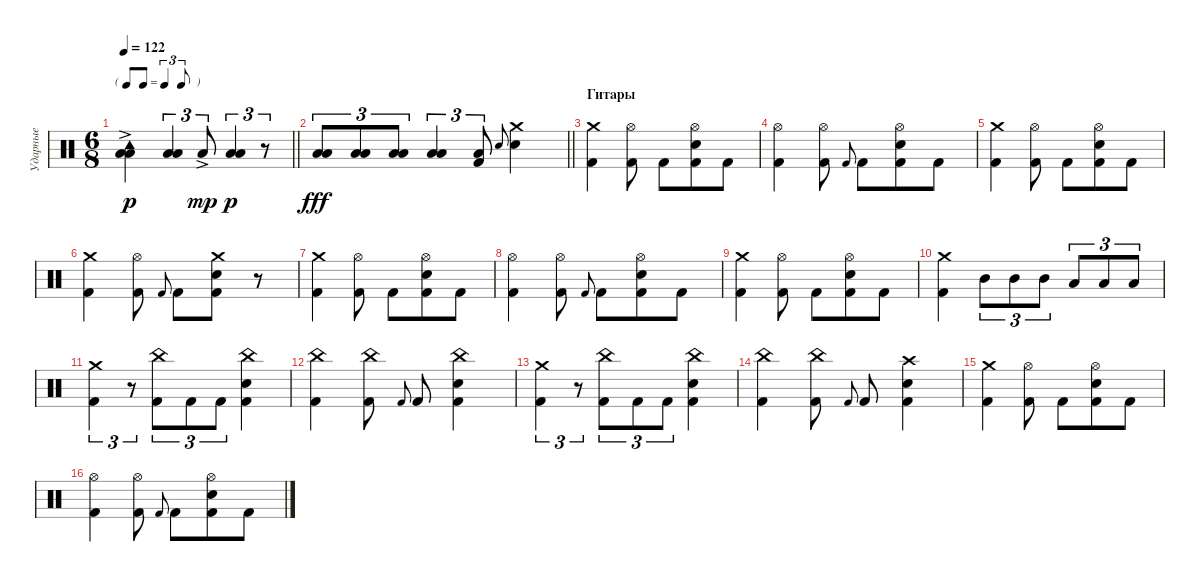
\track ("Ударные" "Ударные") {instrument percussion}
\staff {score}
\articulation defaults
\ts (6 8)
\tf triplet8th
\tempo 122
\clef neutral
\barLineRight lightlight
\ks c
("Low Floor Tom (hit)"{ac} "Low Tom (hit)" "Tambourine (hit)").4{dy p} ("Low Floor Tom (hit)" "Low Tom (hit)").4{tu (3 2)} "Low Tom (hit)"{ac}.8{tu (3 2) dy mp} ("Low Floor Tom (hit)" "Low Tom (hit)").4{tu (3 2) dy p} r.8{tu (3 2)} |
\barLineRight lightlight
("Low Floor Tom (hit)" "Low Tom (hit)").8{tu (3 2) dy fff} ("Low Floor Tom (hit)" "Low Tom (hit)").8{tu (3 2)} ("Low Floor Tom (hit)" "Low Tom (hit)").8{tu (3 2)} ("Low Floor Tom (hit)" "Low Tom (hit)").4{tu (3 2)} ("Low Floor Tom (hit)" "Kick (hit) 2").8{tu (3 2)} "Snare (hit) 2".8{gr onbeat} ("Snare (hit) 2" "Crash medium (hit)").4 |
\section ("" "Гитары")
("Crash medium (hit)" "Kick (hit) 2").4 ("Hi-Hat (open)" "Kick (hit) 2").8 "Kick (hit) 2".8 ("Hi-Hat (open)" "Snare (hit) 2" "Kick (hit) 2").8 "Kick (hit) 2".8 |
("Hi-Hat (open)" "Kick (hit) 2").4 ("Hi-Hat (open)" "Kick (hit) 2").8 "Kick (hit) 2".8{gr onbeat} "Kick (hit) 2".8 ("Hi-Hat (open)" "Snare (hit) 2" "Kick (hit) 2").8 "Kick (hit) 2".8 |
("Crash medium (hit)" "Kick (hit) 2").4 ("Hi-Hat (open)" "Kick (hit) 2").8 "Kick (hit) 2".8 ("Hi-Hat (open)" "Snare (hit) 2" "Kick (hit) 2").8 "Kick (hit) 2".8 |
("Crash medium (hit)" "Kick (hit) 2").4 ("Hi-Hat (open)" "Kick (hit) 2").8 "Kick (hit) 2".8{gr onbeat} "Kick (hit) 2".8 ("Crash medium (hit)" "Snare (hit) 2" "Kick (hit) 2").8 r.8 |
("Crash medium (hit)" "Kick (hit) 2").4 ("Hi-Hat (open)" "Kick (hit) 2").8 "Kick (hit) 2".8 ("Hi-Hat (open)" "Snare (hit) 2" "Kick (hit) 2").8 "Kick (hit) 2".8 |
("Hi-Hat (open)" "Kick (hit) 2").4 ("Hi-Hat (open)" "Kick (hit) 2").8 "Kick (hit) 2".8{gr onbeat} "Kick (hit) 2".8 ("Hi-Hat (open)" "Snare (hit) 2" "Kick (hit) 2").8 "Kick (hit) 2".8 |
("Crash medium (hit)" "Kick (hit) 2").4 ("Hi-Hat (open)" "Kick (hit) 2").8 "Kick (hit) 2".8 ("Hi-Hat (open)" "Snare (hit) 2" "Kick (hit) 2").8 "Kick (hit) 2".8 |
("Crash medium (hit)" "Kick (hit) 2").4 "Mid Tom (hit)".8{tu (3 2)} "Mid Tom (hit)".8{tu (3 2)} "Mid Tom (hit)".8{tu (3 2)} "Low Tom (hit)".8{tu (3 2)} "Low Tom (hit)".8{tu (3 2)} "Low Tom (hit)".8{tu (3 2)} |
("Kick (hit) 2" "Crash medium (hit)").4{tu (3 2)} r.8{tu (3 2)} ("Kick (hit) 2" "China (hit)").8{tu (3 2)} "Kick (hit) 2".8{tu (3 2)} "Kick (hit) 2".8{tu (3 2)} ("Snare (hit) 2" "Kick (hit) 2" "China (hit)").4 |
("China (hit)" "Kick (hit) 2").4 ("China (hit)" "Kick (hit) 2").8 "Kick (hit) 2".8{gr onbeat} "Kick (hit) 2".8 ("China (hit)" "Snare (hit) 2" "Kick (hit) 2").4 |
("Kick (hit) 2" "Crash medium (hit)").4{tu (3 2)} r.8{tu (3 2)} ("Kick (hit) 2" "China (hit)").8{tu (3 2)} "Kick (hit) 2".8{tu (3 2)} "Kick (hit) 2".8{tu (3 2)} ("Snare (hit) 2" "Kick (hit) 2" "China (hit)").4 |
("China (hit)" "Kick (hit) 2").4 ("China (hit)" "Kick (hit) 2").8 "Kick (hit) 2".8{gr onbeat} "Kick (hit) 2".8 ("Crash high (hit)" "Snare (hit) 2" "Kick (hit) 2").4 |
("Crash medium (hit)" "Kick (hit) 2").4 ("Hi-Hat (open)" "Kick (hit) 2").8 "Kick (hit) 2".8 ("Hi-Hat (open)" "Snare (hit) 2" "Kick (hit) 2").8 "Kick (hit) 2".8 |
("Hi-Hat (open)" "Kick (hit) 2").4 ("Hi-Hat (open)" "Kick (hit) 2").8 "Kick (hit) 2".8{gr onbeat} "Kick (hit) 2".8 ("Hi-Hat (open)" "Snare (hit) 2" "Kick (hit) 2").8 "Kick (hit) 2".8
